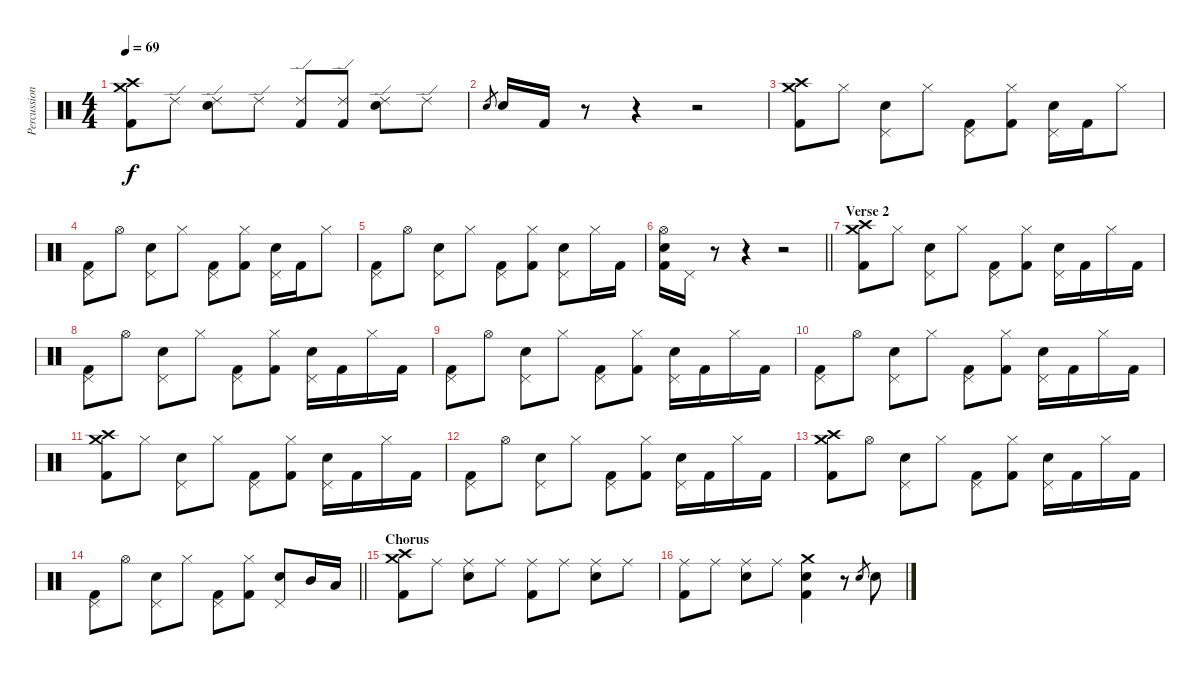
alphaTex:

\track ("Percussion" "Percussion") {instrument percussion}
\staff {score}
\articulation defaults
\ts (4 4)
\tempo 69
\clef neutral
\ks c
("Crash medium (hit)" "Crash high (hit)" "Kick (hit) 2").8{dy f} "Ride (edge) 2".8 ("Ride (edge) 2" "Snare (hit) 2").8 "Ride (edge) 2".8 ("Ride (edge) 2" "Kick (hit) 2").8 ("Ride (edge) 2" "Kick (hit) 2").8 ("Ride (edge) 2" "Snare (hit) 2").8 "Ride (edge) 2".8 |
"Snare (hit) 2".8{gr} "Snare (hit) 2".16 "Kick (hit) 2".16 r.8 r.4 r.2 |
("Crash medium (hit)" "Crash high (hit)" "Kick (hit) 2").8 "Hi-Hat (closed)".8 ("Snare (hit) 2" "Pedal Hi-Hat (hit)").8 "Hi-Hat (closed)".8 ("Pedal Hi-Hat (hit)" "Kick (hit) 2").8 ("Hi-Hat (closed)" "Kick (hit) 2").8 ("Snare (hit) 2" "Pedal Hi-Hat (hit)").16 "Kick (hit) 2".16 "Hi-Hat (closed)".8 |
("Pedal Hi-Hat (hit)" "Kick (hit) 2").8 "Hi-Hat (open)".8 ("Snare (hit) 2" "Pedal Hi-Hat (hit)").8 "Hi-Hat (closed)".8 ("Pedal Hi-Hat (hit)" "Kick (hit) 2").8 ("Hi-Hat (closed)" "Kick (hit) 2").8 ("Snare (hit) 2" "Pedal Hi-Hat (hit)").16 "Kick (hit) 2".16 "Hi-Hat (closed)".8 |
("Pedal Hi-Hat (hit)" "Kick (hit) 2").8 "Hi-Hat (open)".8 ("Snare (hit) 2" "Pedal Hi-Hat (hit)").8 "Hi-Hat (closed)".8 ("Pedal Hi-Hat (hit)" "Kick (hit) 2").8 ("Hi-Hat (closed)" "Kick (hit) 2").8 ("Snare (hit) 2" "Pedal Hi-Hat (hit)").8 "Hi-Hat (closed)".16 "Kick (hit) 2".16 |
\barLineRight lightlight
("Snare (hit) 2" "Hi-Hat (open)" "Kick (hit) 2").16 "Pedal Hi-Hat (hit)".16 r.8 r.4 r.2 |
\section ("" "Verse 2")
("Crash medium (hit)" "Crash high (hit)" "Kick (hit) 2").8 "Hi-Hat (closed)".8 ("Snare (hit) 2" "Pedal Hi-Hat (hit)").8 "Hi-Hat (closed)".8 ("Pedal Hi-Hat (hit)" "Kick (hit) 2").8 ("Hi-Hat (closed)" "Kick (hit) 2").8 ("Snare (hit) 2" "Pedal Hi-Hat (hit)").16 "Kick (hit) 2".16 "Hi-Hat (closed)".16 "Kick (hit) 2".16 |
("Pedal Hi-Hat (hit)" "Kick (hit) 2").8 "Hi-Hat (open)".8 ("Snare (hit) 2" "Pedal Hi-Hat (hit)").8 "Hi-Hat (closed)".8 ("Pedal Hi-Hat (hit)" "Kick (hit) 2").8 ("Hi-Hat (closed)" "Kick (hit) 2").8 ("Snare (hit) 2" "Pedal Hi-Hat (hit)").16 "Kick (hit) 2".16 "Hi-Hat (closed)".16 "Kick (hit) 2".16 |
("Pedal Hi-Hat (hit)" "Kick (hit) 2").8 "Hi-Hat (open)".8 ("Snare (hit) 2" "Pedal Hi-Hat (hit)").8 "Hi-Hat (closed)".8 ("Pedal Hi-Hat (hit)" "Kick (hit) 2").8 ("Hi-Hat (closed)" "Kick (hit) 2").8 ("Snare (hit) 2" "Pedal Hi-Hat (hit)").16 "Kick (hit) 2".16 "Hi-Hat (closed)".16 "Kick (hit) 2".16 |
("Pedal Hi-Hat (hit)" "Kick (hit) 2").8 "Hi-Hat (open)".8 ("Snare (hit) 2" "Pedal Hi-Hat (hit)").8 "Hi-Hat (closed)".8 ("Pedal Hi-Hat (hit)" "Kick (hit) 2").8 ("Hi-Hat (closed)" "Kick (hit) 2").8 ("Snare (hit) 2" "Pedal Hi-Hat (hit)").16 "Kick (hit) 2".16 "Hi-Hat (closed)".16 "Kick (hit) 2".16 |
("Crash medium (hit)" "Crash high (hit)" "Kick (hit) 2").8 "Hi-Hat (closed)".8 ("Snare (hit) 2" "Pedal Hi-Hat (hit)").8 "Hi-Hat (closed)".8 ("Pedal Hi-Hat (hit)" "Kick (hit) 2").8 ("Hi-Hat (closed)" "Kick (hit) 2").8 ("Snare (hit) 2" "Pedal Hi-Hat (hit)").16 "Kick (hit) 2".16 "Hi-Hat (closed)".16 "Kick (hit) 2".16 |
("Pedal Hi-Hat (hit)" "Kick (hit) 2").8 "Hi-Hat (open)".8 ("Snare (hit) 2" "Pedal Hi-Hat (hit)").8 "Hi-Hat (closed)".8 ("Pedal Hi-Hat (hit)" "Kick (hit) 2").8 ("Hi-Hat (closed)" "Kick (hit) 2").8 ("Snare (hit) 2" "Pedal Hi-Hat (hit)").16 "Kick (hit) 2".16 "Hi-Hat (closed)".16 "Kick (hit) 2".16 |
("Crash medium (hit)" "Crash high (hit)" "Kick (hit) 2").8 "Hi-Hat (open)".8 ("Snare (hit) 2" "Pedal Hi-Hat (hit)").8 "Hi-Hat (closed)".8 ("Pedal Hi-Hat (hit)" "Kick (hit) 2").8 ("Hi-Hat (closed)" "Kick (hit) 2").8 ("Snare (hit) 2" "Pedal Hi-Hat (hit)").16 "Kick (hit) 2".16 "Hi-Hat (closed)".16 "Kick (hit) 2".16 |
\barLineRight lightlight
("Pedal Hi-Hat (hit)" "Kick (hit) 2").8 "Hi-Hat (open)".8 ("Snare (hit) 2" "Pedal Hi-Hat (hit)").8 "Hi-Hat (closed)".8 ("Pedal Hi-Hat (hit)" "Kick (hit) 2").8 ("Hi-Hat (closed)" "Kick (hit) 2").8 ("Snare (hit) 2" "Pedal Hi-Hat (hit)").8 "Mid Tom (hit)".16 "Low Tom (hit)".16 |
\section ("" "Chorus")
("Crash medium (hit)" "Crash high (hit)" "Kick (hit) 2").8 "Ride (middle)".8 ("Ride (middle)" "Snare (hit) 2").8 "Ride (middle)".8 ("Ride (middle)" "Kick (hit) 2").8 "Ride (middle)".8 ("Ride (middle)" "Snare (hit) 2").8 "Ride (middle)".8 |
("Ride (middle)" "Kick (hit) 2").8 "Ride (middle)".8 ("Ride (middle)" "Snare (hit) 2").8 "Ride (middle)".8 ("Crash medium (hit)" "Snare (hit) 2" "Kick (hit) 2").4 r.8 "Snare (hit) 2".8{gr} "Snare (hit) 2".8
